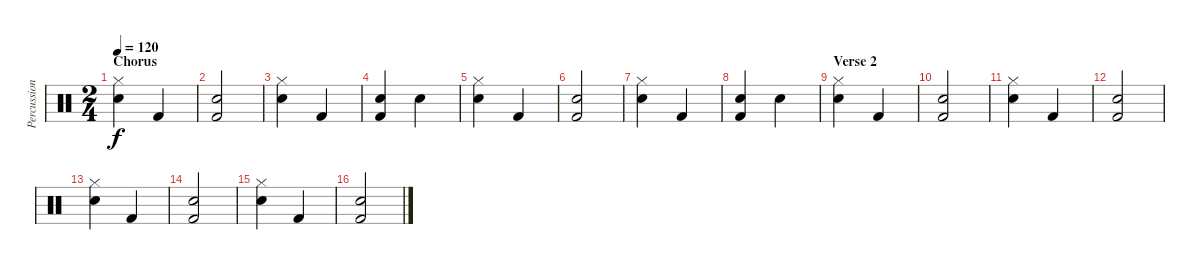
\track ("Percussion" "Percussion") {instrument percussion}
\staff {score}
\articulation defaults
\ts (2 4)
\section ("" "Chorus")
\tempo 120
\clef neutral
\ks c
("Hi-Hat (closed)" "Snare (hit) 2").4{dy f} "Kick (hit) 2".4 |
("Kick (hit) 2" "Snare (hit) 2").2 |
("Hi-Hat (closed)" "Snare (hit) 2").4 "Kick (hit) 2".4 |
("Kick (hit) 2" "Snare (hit) 2").4 "Snare (hit) 2".4 |
("Hi-Hat (closed)" "Snare (hit) 2").4 "Kick (hit) 2".4 |
("Kick (hit) 2" "Snare (hit) 2").2 |
("Hi-Hat (closed)" "Snare (hit) 2").4 "Kick (hit) 2".4 |
("Kick (hit) 2" "Snare (hit) 2").4 "Snare (hit) 2".4 |
\section ("" "Verse 2")
("Hi-Hat (closed)" "Snare (hit) 2").4 "Kick (hit) 2".4 |
("Kick (hit) 2" "Snare (hit) 2").2 |
("Hi-Hat (closed)" "Snare (hit) 2").4 "Kick (hit) 2".4 |
("Kick (hit) 2" "Snare (hit) 2").2 |
("Hi-Hat (closed)" "Snare (hit) 2").4 "Kick (hit) 2".4 |
("Kick (hit) 2" "Snare (hit) 2").2 |
("Hi-Hat (closed)" "Snare (hit) 2").4 "Kick (hit) 2".4 |
("Kick (hit) 2" "Snare (hit) 2").2
